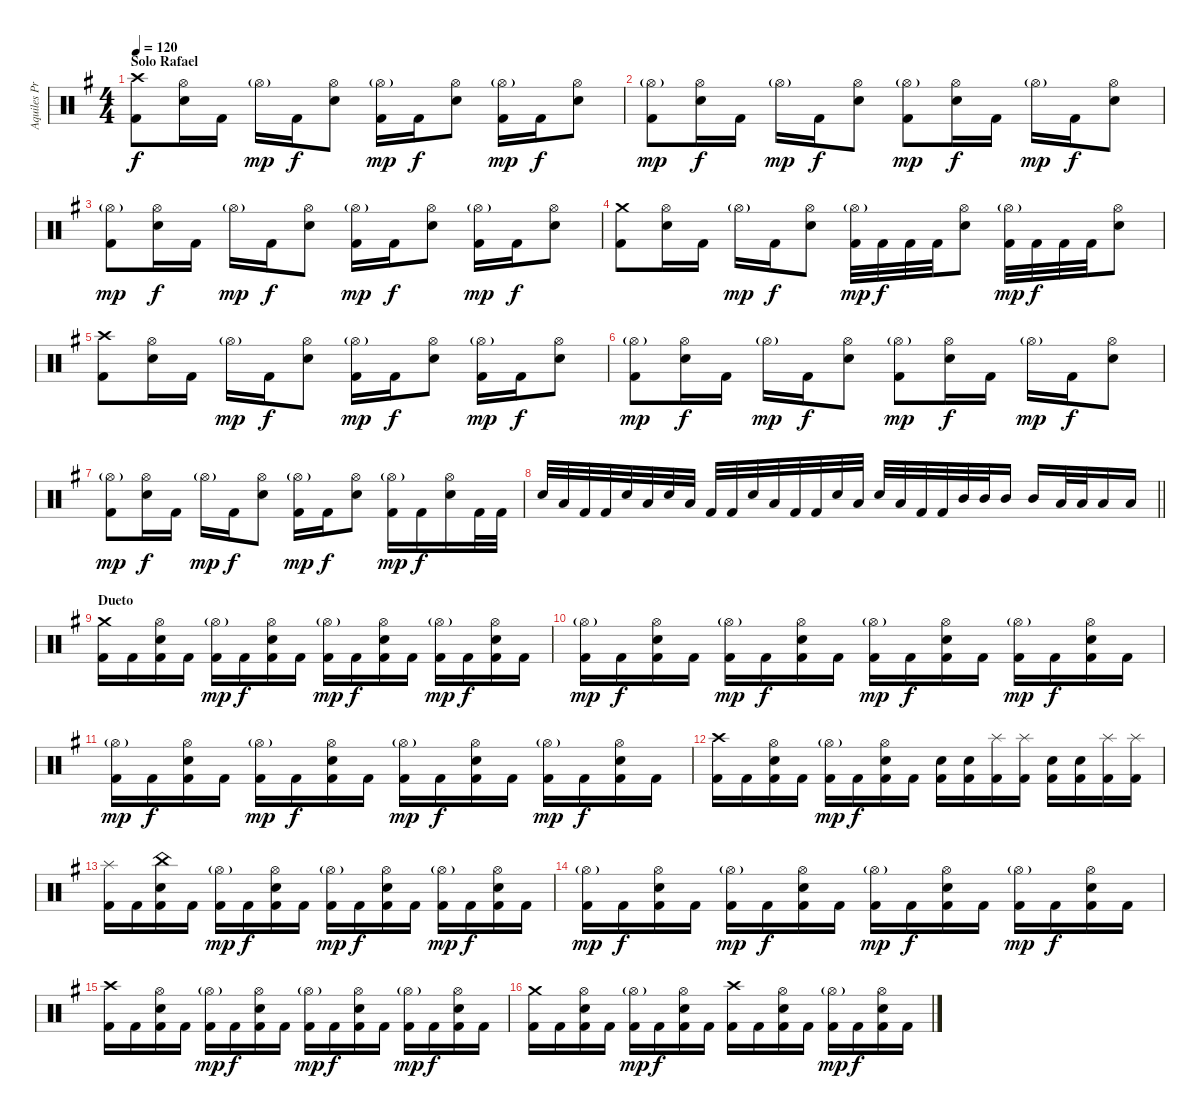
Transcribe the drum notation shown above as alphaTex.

\track ("Aquiles Priester" "Aquiles Pr") {instrument percussion}
\staff {score}
\articulation defaults
\ts (4 4)
\section ("" "Solo Rafael")
\tempo 120
\clef neutral
\ks eminor
("Crash high (hit)" "Kick (hit) 2").8{dy f} ("Hi-Hat (open)" "Electric Snare (hit)").16 "Kick (hit) 2".16 "Hi-Hat (open)"{g}.16{dy mp} "Kick (hit) 2".16{dy f} ("Hi-Hat (open)" "Electric Snare (hit)").8 ("Hi-Hat (open)"{g} "Kick (hit) 2").16{dy mp} "Kick (hit) 2".16{dy f} ("Hi-Hat (open)" "Electric Snare (hit)").8 ("Hi-Hat (open)"{g} "Kick (hit) 2").16{dy mp} "Kick (hit) 2".16{dy f} ("Hi-Hat (open)" "Electric Snare (hit)").8 |
("Hi-Hat (open)"{g} "Kick (hit) 2").8{dy mp} ("Hi-Hat (open)" "Electric Snare (hit)").16{dy f} "Kick (hit) 2".16 "Hi-Hat (open)"{g}.16{dy mp} "Kick (hit) 2".16{dy f} ("Hi-Hat (open)" "Electric Snare (hit)").8 ("Hi-Hat (open)"{g} "Kick (hit) 2").8{dy mp} ("Hi-Hat (open)" "Electric Snare (hit)").16{dy f} "Kick (hit) 2".16 "Hi-Hat (open)"{g}.16{dy mp} "Kick (hit) 2".16{dy f} ("Hi-Hat (open)" "Electric Snare (hit)").8 |
("Hi-Hat (open)"{g} "Kick (hit) 2").8{dy mp} ("Hi-Hat (open)" "Electric Snare (hit)").16{dy f} "Kick (hit) 2".16 "Hi-Hat (open)"{g}.16{dy mp} "Kick (hit) 2".16{dy f} ("Hi-Hat (open)" "Electric Snare (hit)").8 ("Hi-Hat (open)"{g} "Kick (hit) 2").16{dy mp} "Kick (hit) 2".16{dy f} ("Hi-Hat (open)" "Electric Snare (hit)").8 ("Hi-Hat (open)"{g} "Kick (hit) 2").16{dy mp} "Kick (hit) 2".16{dy f} ("Hi-Hat (open)" "Electric Snare (hit)").8 |
("Crash medium (hit)" "Kick (hit) 2").8 ("Hi-Hat (open)" "Electric Snare (hit)").16 "Kick (hit) 2".16 "Hi-Hat (open)"{g}.16{dy mp} "Kick (hit) 2".16{dy f} ("Hi-Hat (open)" "Electric Snare (hit)").8 ("Hi-Hat (open)"{g} "Kick (hit) 2").32{dy mp} "Kick (hit) 2".32{dy f} "Kick (hit) 2".32 "Kick (hit) 2".32 ("Hi-Hat (open)" "Electric Snare (hit)").8 ("Hi-Hat (open)"{g} "Kick (hit) 2").32{dy mp} "Kick (hit) 2".32{dy f} "Kick (hit) 2".32 "Kick (hit) 2".32 ("Hi-Hat (open)" "Electric Snare (hit)").8 |
("Crash high (hit)" "Kick (hit) 2").8 ("Hi-Hat (open)" "Electric Snare (hit)").16 "Kick (hit) 2".16 "Hi-Hat (open)"{g}.16{dy mp} "Kick (hit) 2".16{dy f} ("Hi-Hat (open)" "Electric Snare (hit)").8 ("Hi-Hat (open)"{g} "Kick (hit) 2").16{dy mp} "Kick (hit) 2".16{dy f} ("Hi-Hat (open)" "Electric Snare (hit)").8 ("Hi-Hat (open)"{g} "Kick (hit) 2").16{dy mp} "Kick (hit) 2".16{dy f} ("Hi-Hat (open)" "Electric Snare (hit)").8 |
("Hi-Hat (open)"{g} "Kick (hit) 2").8{dy mp} ("Hi-Hat (open)" "Electric Snare (hit)").16{dy f} "Kick (hit) 2".16 "Hi-Hat (open)"{g}.16{dy mp} "Kick (hit) 2".16{dy f} ("Hi-Hat (open)" "Electric Snare (hit)").8 ("Hi-Hat (open)"{g} "Kick (hit) 2").8{dy mp} ("Hi-Hat (open)" "Electric Snare (hit)").16{dy f} "Kick (hit) 2".16 "Hi-Hat (open)"{g}.16{dy mp} "Kick (hit) 2".16{dy f} ("Hi-Hat (open)" "Electric Snare (hit)").8 |
("Hi-Hat (open)"{g} "Kick (hit) 2").8{dy mp} ("Hi-Hat (open)" "Electric Snare (hit)").16{dy f} "Kick (hit) 2".16 "Hi-Hat (open)"{g}.16{dy mp} "Kick (hit) 2".16{dy f} ("Hi-Hat (open)" "Electric Snare (hit)").8 ("Hi-Hat (open)"{g} "Kick (hit) 2").16{dy mp} "Kick (hit) 2".16{dy f} ("Hi-Hat (open)" "Electric Snare (hit)").8 ("Hi-Hat (open)"{g} "Kick (hit) 2").16{dy mp} "Kick (hit) 2".16{dy f} ("Hi-Hat (open)" "Electric Snare (hit)").16 "Kick (hit) 2".32 "Kick (hit) 2".32 |
\barLineRight lightlight "Electric Snare (hit)".32 "Low Tom (hit)".32 "Kick (hit) 2".32 "Kick (hit) 2".32 "Electric Snare (hit)".32 "Low Tom (hit)".32 "Electric Snare (hit)".32 "Low Tom (hit)".32 "Kick (hit) 2".32 "Kick (hit) 2".32 "Electric Snare (hit)".32 "Low Tom (hit)".32 "Kick (hit) 2".32 "Kick (hit) 2".32 "Electric Snare (hit)".32 "Low Tom (hit)".32 "Electric Snare (hit)".32 "Low Tom (hit)".32 "Kick (hit) 2".32 "Kick (hit) 2".32 "Mid Tom (hit)".32 "Mid Tom (hit)".32 "Mid Tom (hit)".16 "Mid Tom (hit)".16 "Low Tom (hit)".32 "Low Tom (hit)".32 "Low Tom (hit)".16 "Low Tom (hit)".16
|
\section ("" "Dueto")
("Crash medium (hit)" "Kick (hit) 2").16 "Kick (hit) 2".16 ("Hi-Hat (open)" "Electric Snare (hit)" "Kick (hit) 2").16 "Kick (hit) 2".16 ("Hi-Hat (open)"{g} "Kick (hit) 2").16{dy mp} "Kick (hit) 2".16{dy f} ("Hi-Hat (open)" "Electric Snare (hit)" "Kick (hit) 2").16 "Kick (hit) 2".16 ("Hi-Hat (open)"{g} "Kick (hit) 2").16{dy mp} "Kick (hit) 2".16{dy f} ("Hi-Hat (open)" "Electric Snare (hit)" "Kick (hit) 2").16 "Kick (hit) 2".16 ("Hi-Hat (open)"{g} "Kick (hit) 2").16{dy mp} "Kick (hit) 2".16{dy f} ("Hi-Hat (open)" "Electric Snare (hit)" "Kick (hit) 2").16 "Kick (hit) 2".16 |
("Hi-Hat (open)"{g} "Kick (hit) 2").16{dy mp} "Kick (hit) 2".16{dy f} ("Hi-Hat (open)" "Electric Snare (hit)" "Kick (hit) 2").16 "Kick (hit) 2".16 ("Hi-Hat (open)"{g} "Kick (hit) 2").16{dy mp} "Kick (hit) 2".16{dy f} ("Hi-Hat (open)" "Electric Snare (hit)" "Kick (hit) 2").16 "Kick (hit) 2".16 ("Hi-Hat (open)"{g} "Kick (hit) 2").16{dy mp} "Kick (hit) 2".16{dy f} ("Hi-Hat (open)" "Electric Snare (hit)" "Kick (hit) 2").16 "Kick (hit) 2".16 ("Hi-Hat (open)"{g} "Kick (hit) 2").16{dy mp} "Kick (hit) 2".16{dy f} ("Hi-Hat (open)" "Electric Snare (hit)" "Kick (hit) 2").16 "Kick (hit) 2".16 |
("Hi-Hat (open)"{g} "Kick (hit) 2").16{dy mp} "Kick (hit) 2".16{dy f} ("Hi-Hat (open)" "Electric Snare (hit)" "Kick (hit) 2").16 "Kick (hit) 2".16 ("Hi-Hat (open)"{g} "Kick (hit) 2").16{dy mp} "Kick (hit) 2".16{dy f} ("Hi-Hat (open)" "Electric Snare (hit)" "Kick (hit) 2").16 "Kick (hit) 2".16 ("Hi-Hat (open)"{g} "Kick (hit) 2").16{dy mp} "Kick (hit) 2".16{dy f} ("Hi-Hat (open)" "Electric Snare (hit)" "Kick (hit) 2").16 "Kick (hit) 2".16 ("Hi-Hat (open)"{g} "Kick (hit) 2").16{dy mp} "Kick (hit) 2".16{dy f} ("Hi-Hat (open)" "Electric Snare (hit)" "Kick (hit) 2").16 "Kick (hit) 2".16 |
("Crash high (hit)" "Kick (hit) 2").16 "Kick (hit) 2".16 ("Hi-Hat (open)" "Electric Snare (hit)" "Kick (hit) 2").16 "Kick (hit) 2".16 ("Hi-Hat (open)"{g} "Kick (hit) 2").16{dy mp} "Kick (hit) 2".16{dy f} ("Hi-Hat (open)" "Electric Snare (hit)" "Kick (hit) 2").16 "Kick (hit) 2".16 ("Electric Snare (hit)" "Kick (hit) 2").16 ("Electric Snare (hit)" "Kick (hit) 2").16 ("Splash (hit)" "Kick (hit) 2").16 ("Splash (hit)" "Kick (hit) 2").16 ("Electric Snare (hit)" "Kick (hit) 2").16 ("Electric Snare (hit)" "Kick (hit) 2").16 ("Splash (hit)" "Kick (hit) 2").16 ("Splash (hit)" "Kick (hit) 2").16 |
("Splash (hit)" "Kick (hit) 2").16 "Kick (hit) 2".16 ("China (hit)" "Electric Snare (hit)" "Kick (hit) 2").16 "Kick (hit) 2".16 ("Hi-Hat (open)"{g} "Kick (hit) 2").16{dy mp} "Kick (hit) 2".16{dy f} ("Hi-Hat (open)" "Electric Snare (hit)" "Kick (hit) 2").16 "Kick (hit) 2".16 ("Hi-Hat (open)"{g} "Kick (hit) 2").16{dy mp} "Kick (hit) 2".16{dy f} ("Hi-Hat (open)" "Electric Snare (hit)" "Kick (hit) 2").16 "Kick (hit) 2".16 ("Hi-Hat (open)"{g} "Kick (hit) 2").16{dy mp} "Kick (hit) 2".16{dy f} ("Hi-Hat (open)" "Electric Snare (hit)" "Kick (hit) 2").16 "Kick (hit) 2".16 |
("Hi-Hat (open)"{g} "Kick (hit) 2").16{dy mp} "Kick (hit) 2".16{dy f} ("Hi-Hat (open)" "Electric Snare (hit)" "Kick (hit) 2").16 "Kick (hit) 2".16 ("Hi-Hat (open)"{g} "Kick (hit) 2").16{dy mp} "Kick (hit) 2".16{dy f} ("Hi-Hat (open)" "Electric Snare (hit)" "Kick (hit) 2").16 "Kick (hit) 2".16 ("Hi-Hat (open)"{g} "Kick (hit) 2").16{dy mp} "Kick (hit) 2".16{dy f} ("Hi-Hat (open)" "Electric Snare (hit)" "Kick (hit) 2").16 "Kick (hit) 2".16 ("Hi-Hat (open)"{g} "Kick (hit) 2").16{dy mp} "Kick (hit) 2".16{dy f} ("Hi-Hat (open)" "Electric Snare (hit)" "Kick (hit) 2").16 "Kick (hit) 2".16 |
("Crash high (hit)" "Kick (hit) 2").16 "Kick (hit) 2".16 ("Hi-Hat (open)" "Electric Snare (hit)" "Kick (hit) 2").16 "Kick (hit) 2".16 ("Hi-Hat (open)"{g} "Kick (hit) 2").16{dy mp} "Kick (hit) 2".16{dy f} ("Hi-Hat (open)" "Electric Snare (hit)" "Kick (hit) 2").16 "Kick (hit) 2".16 ("Hi-Hat (open)"{g} "Kick (hit) 2").16{dy mp} "Kick (hit) 2".16{dy f} ("Hi-Hat (open)" "Electric Snare (hit)" "Kick (hit) 2").16 "Kick (hit) 2".16 ("Hi-Hat (open)"{g} "Kick (hit) 2").16{dy mp} "Kick (hit) 2".16{dy f} ("Hi-Hat (open)" "Electric Snare (hit)" "Kick (hit) 2").16 "Kick (hit) 2".16 |
("Crash medium (hit)" "Kick (hit) 2").16 "Kick (hit) 2".16 ("Hi-Hat (open)" "Electric Snare (hit)" "Kick (hit) 2").16 "Kick (hit) 2".16 ("Hi-Hat (open)"{g} "Kick (hit) 2").16{dy mp} "Kick (hit) 2".16{dy f} ("Hi-Hat (open)" "Electric Snare (hit)" "Kick (hit) 2").16 "Kick (hit) 2".16 ("Crash high (hit)" "Kick (hit) 2").16 "Kick (hit) 2".16 ("Hi-Hat (open)" "Electric Snare (hit)" "Kick (hit) 2").16 "Kick (hit) 2".16 ("Hi-Hat (open)"{g} "Kick (hit) 2").16{dy mp} "Kick (hit) 2".16{dy f} ("Hi-Hat (open)" "Electric Snare (hit)" "Kick (hit) 2").16 "Kick (hit) 2".16
